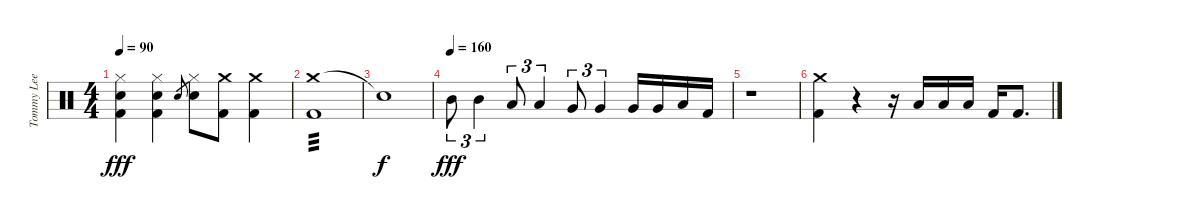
\track ("Tommy Lee - Drums" "Tommy Lee ") {instrument percussion}
\staff {score}
\articulation defaults
\ts (4 4)
\tempo 90
\clef neutral
\ks c
("Hi-Hat (closed)" "Snare (hit) 2" "Kick (hit) 2").4{dy fff} ("Hi-Hat (closed)" "Snare (hit) 2" "Kick (hit) 2").4 "Snare (hit) 2".8{gr} ("Hi-Hat (closed)" "Snare (hit) 2").8 ("Crash medium (hit)" "Kick (hit) 2").8 ("Crash medium (hit)" "Kick (hit) 2").4 |
("Crash medium (hit)" "Kick (hit) 2").1{tp 3} |
"Snare (hit)"{t}.1{dy f} |
\tempo (160)
"Mid Tom (hit)".8{tu (3 2) dy fff} "Mid Tom (hit)".4{tu (3 2)} "Low Tom (hit)".8{tu (3 2)} "Low Tom (hit)".4{tu (3 2)} "Very Low Tom (hit)".8{tu (3 2)} "Very Low Tom (hit)".4{tu (3 2)} "Very Low Tom (hit)".16 "Very Low Tom (hit)".16 "Low Floor Tom (hit)".16 "Kick (hit) 2".16 |
r.1 |
("Crash medium (hit)" "Kick (hit) 2").4 r.4 r.16 "Low Tom (hit)".16 "Low Tom (hit)".16 "Low Tom (hit)".16 "Kick (hit) 2".16 "Kick (hit) 2".8{d}
